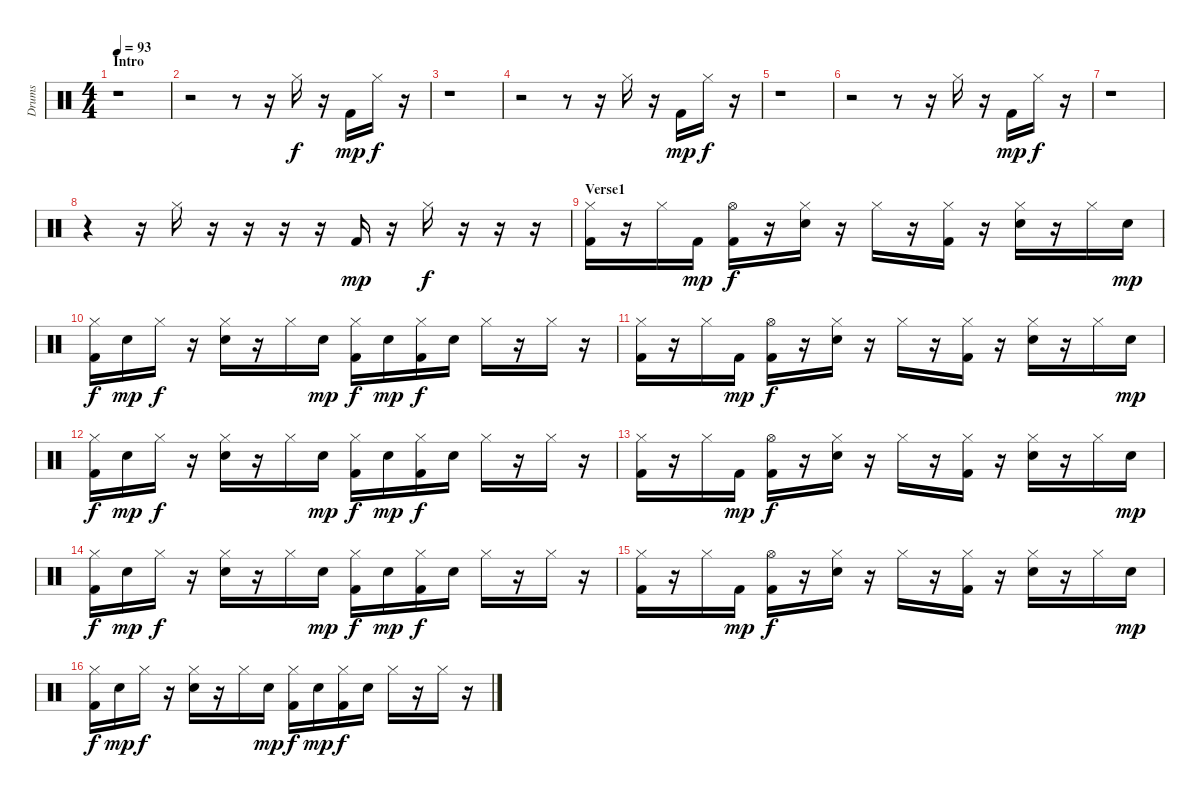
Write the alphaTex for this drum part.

\track ("Drums" "Drums") {instrument percussion}
\staff {score}
\articulation defaults
\ts (4 4)
\section ("" "Intro")
\tempo 93
\clef neutral
\ks c
r.1{dy f} |
r.2 r.8 r.16 "Hi-Hat (closed)".16 r.16 "Kick (hit) 2".16{dy mp} "Hi-Hat (closed)".16{dy f} r.16 |
r.1 |
r.2 r.8 r.16 "Hi-Hat (closed)".16 r.16 "Kick (hit) 2".16{dy mp} "Hi-Hat (closed)".16{dy f} r.16 |
r.1 |
r.2 r.8 r.16 "Hi-Hat (closed)".16 r.16 "Kick (hit) 2".16{dy mp} "Hi-Hat (closed)".16{dy f} r.16 |
r.1 |
r.4 r.16 "Hi-Hat (closed)".16 r.16 r.16 r.16 r.16 "Kick (hit) 2".16{dy mp} r.16 "Hi-Hat (closed)".16{dy f} r.16 r.16 r.16 |
\section ("" "Verse1")
("Hi-Hat (closed)" "Kick (hit) 2").16 r.16 "Hi-Hat (closed)".16 "Kick (hit) 2".16{dy mp} ("Hi-Hat (open)" "Kick (hit) 2").16{dy f} r.16 ("Hi-Hat (closed)" "Snare (hit) 2").16 r.16 "Hi-Hat (closed)".16 r.16 ("Hi-Hat (closed)" "Kick (hit) 2").16 r.16 ("Hi-Hat (closed)" "Snare (hit) 2").16 r.16 "Hi-Hat (closed)".16 "Snare (hit) 2".16{dy mp} |
("Hi-Hat (closed)" "Kick (hit) 2").16{dy f} "Snare (hit) 2".16{dy mp} "Hi-Hat (closed)".16{dy f} r.16 ("Hi-Hat (closed)" "Snare (hit) 2").16 r.16 "Hi-Hat (closed)".16 "Snare (hit) 2".16{dy mp} ("Hi-Hat (closed)" "Kick (hit) 2").16{dy f} "Snare (hit) 2".16{dy mp} ("Hi-Hat (closed)" "Kick (hit) 2").16{dy f} "Snare (hit) 2".16 "Hi-Hat (closed)".16 r.16 "Hi-Hat (closed)".16 r.16 |
("Hi-Hat (closed)" "Kick (hit) 2").16 r.16 "Hi-Hat (closed)".16 "Kick (hit) 2".16{dy mp} ("Hi-Hat (open)" "Kick (hit) 2").16{dy f} r.16 ("Hi-Hat (closed)" "Snare (hit) 2").16 r.16 "Hi-Hat (closed)".16 r.16 ("Hi-Hat (closed)" "Kick (hit) 2").16 r.16 ("Hi-Hat (closed)" "Snare (hit) 2").16 r.16 "Hi-Hat (closed)".16 "Snare (hit) 2".16{dy mp} |
("Hi-Hat (closed)" "Kick (hit) 2").16{dy f} "Snare (hit) 2".16{dy mp} "Hi-Hat (closed)".16{dy f} r.16 ("Hi-Hat (closed)" "Snare (hit) 2").16 r.16 "Hi-Hat (closed)".16 "Snare (hit) 2".16{dy mp} ("Hi-Hat (closed)" "Kick (hit) 2").16{dy f} "Snare (hit) 2".16{dy mp} ("Hi-Hat (closed)" "Kick (hit) 2").16{dy f} "Snare (hit) 2".16 "Hi-Hat (closed)".16 r.16 "Hi-Hat (closed)".16 r.16 |
("Hi-Hat (closed)" "Kick (hit) 2").16 r.16 "Hi-Hat (closed)".16 "Kick (hit) 2".16{dy mp} ("Hi-Hat (open)" "Kick (hit) 2").16{dy f} r.16 ("Hi-Hat (closed)" "Snare (hit) 2").16 r.16 "Hi-Hat (closed)".16 r.16 ("Hi-Hat (closed)" "Kick (hit) 2").16 r.16 ("Hi-Hat (closed)" "Snare (hit) 2").16 r.16 "Hi-Hat (closed)".16 "Snare (hit) 2".16{dy mp} |
("Hi-Hat (closed)" "Kick (hit) 2").16{dy f} "Snare (hit) 2".16{dy mp} "Hi-Hat (closed)".16{dy f} r.16 ("Hi-Hat (closed)" "Snare (hit) 2").16 r.16 "Hi-Hat (closed)".16 "Snare (hit) 2".16{dy mp} ("Hi-Hat (closed)" "Kick (hit) 2").16{dy f} "Snare (hit) 2".16{dy mp} ("Hi-Hat (closed)" "Kick (hit) 2").16{dy f} "Snare (hit) 2".16 "Hi-Hat (closed)".16 r.16 "Hi-Hat (closed)".16 r.16 |
("Hi-Hat (closed)" "Kick (hit) 2").16 r.16 "Hi-Hat (closed)".16 "Kick (hit) 2".16{dy mp} ("Hi-Hat (open)" "Kick (hit) 2").16{dy f} r.16 ("Hi-Hat (closed)" "Snare (hit) 2").16 r.16 "Hi-Hat (closed)".16 r.16 ("Hi-Hat (closed)" "Kick (hit) 2").16 r.16 ("Hi-Hat (closed)" "Snare (hit) 2").16 r.16 "Hi-Hat (closed)".16 "Snare (hit) 2".16{dy mp} |
("Hi-Hat (closed)" "Kick (hit) 2").16{dy f} "Snare (hit) 2".16{dy mp} "Hi-Hat (closed)".16{dy f} r.16 ("Hi-Hat (closed)" "Snare (hit) 2").16 r.16 "Hi-Hat (closed)".16 "Snare (hit) 2".16{dy mp} ("Hi-Hat (closed)" "Kick (hit) 2").16{dy f} "Snare (hit) 2".16{dy mp} ("Hi-Hat (closed)" "Kick (hit) 2").16{dy f} "Snare (hit) 2".16 "Hi-Hat (closed)".16 r.16 "Hi-Hat (closed)".16 r.16
